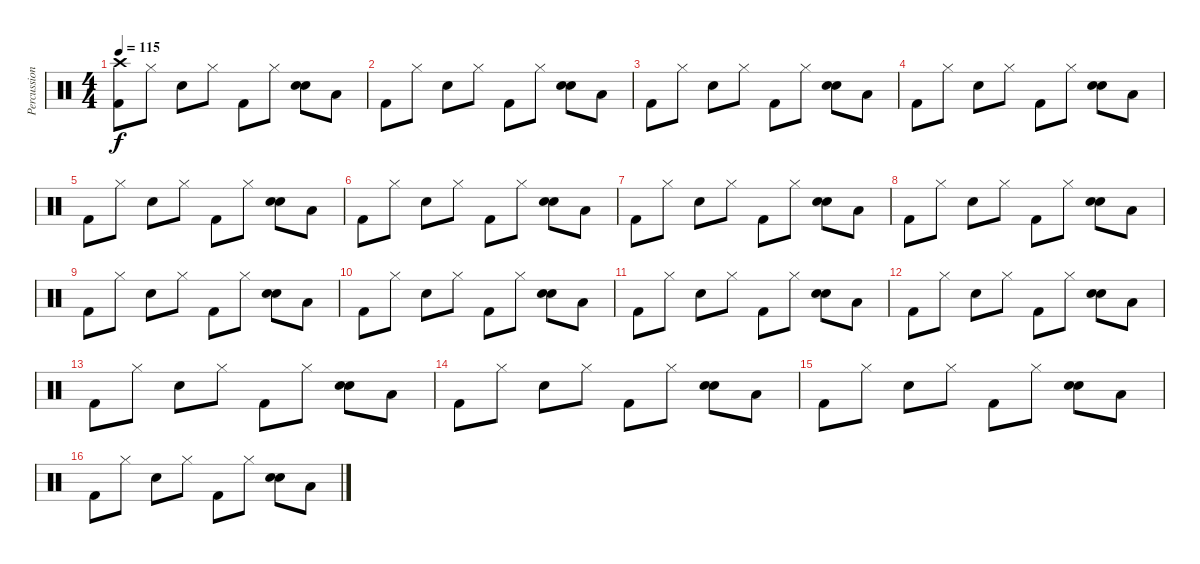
\track ("Percussions" "Percussion") {instrument percussion}
\staff {score}
\articulation defaults
\ts (4 4)
\tempo 115
\clef neutral
\ks c
("Kick (hit) 2" "Crash high (hit)").8{dy f} "Hi-Hat (closed)".8 "Electric Snare (hit)".8 "Hi-Hat (closed)".8 "Kick (hit) 2".8 "Hi-Hat (closed)".8 ("Hand Clap (hit)" "Electric Snare (hit)").8 "Low Tom (hit)".8 |
"Kick (hit) 2".8 "Hi-Hat (closed)".8 "Electric Snare (hit)".8 "Hi-Hat (closed)".8 "Kick (hit) 2".8 "Hi-Hat (closed)".8 ("Hand Clap (hit)" "Electric Snare (hit)").8 "Low Tom (hit)".8 |
"Kick (hit) 2".8 "Hi-Hat (closed)".8 "Electric Snare (hit)".8 "Hi-Hat (closed)".8 "Kick (hit) 2".8 "Hi-Hat (closed)".8 ("Hand Clap (hit)" "Electric Snare (hit)").8 "Low Tom (hit)".8 |
"Kick (hit) 2".8 "Hi-Hat (closed)".8 "Electric Snare (hit)".8 "Hi-Hat (closed)".8 "Kick (hit) 2".8 "Hi-Hat (closed)".8 ("Hand Clap (hit)" "Electric Snare (hit)").8 "Low Tom (hit)".8 |
"Kick (hit) 2".8 "Hi-Hat (closed)".8 "Electric Snare (hit)".8 "Hi-Hat (closed)".8 "Kick (hit) 2".8 "Hi-Hat (closed)".8 ("Hand Clap (hit)" "Electric Snare (hit)").8 "Low Tom (hit)".8 |
"Kick (hit) 2".8 "Hi-Hat (closed)".8 "Electric Snare (hit)".8 "Hi-Hat (closed)".8 "Kick (hit) 2".8 "Hi-Hat (closed)".8 ("Hand Clap (hit)" "Electric Snare (hit)").8 "Low Tom (hit)".8 |
"Kick (hit) 2".8 "Hi-Hat (closed)".8 "Electric Snare (hit)".8 "Hi-Hat (closed)".8 "Kick (hit) 2".8 "Hi-Hat (closed)".8 ("Hand Clap (hit)" "Electric Snare (hit)").8 "Low Tom (hit)".8 |
"Kick (hit) 2".8 "Hi-Hat (closed)".8 "Electric Snare (hit)".8 "Hi-Hat (closed)".8 "Kick (hit) 2".8 "Hi-Hat (closed)".8 ("Hand Clap (hit)" "Electric Snare (hit)").8 "Low Tom (hit)".8 |
"Kick (hit) 2".8 "Hi-Hat (closed)".8 "Electric Snare (hit)".8 "Hi-Hat (closed)".8 "Kick (hit) 2".8 "Hi-Hat (closed)".8 ("Hand Clap (hit)" "Electric Snare (hit)").8 "Low Tom (hit)".8 |
"Kick (hit) 2".8 "Hi-Hat (closed)".8 "Electric Snare (hit)".8 "Hi-Hat (closed)".8 "Kick (hit) 2".8 "Hi-Hat (closed)".8 ("Hand Clap (hit)" "Electric Snare (hit)").8 "Low Tom (hit)".8 |
"Kick (hit) 2".8 "Hi-Hat (closed)".8 "Electric Snare (hit)".8 "Hi-Hat (closed)".8 "Kick (hit) 2".8 "Hi-Hat (closed)".8 ("Hand Clap (hit)" "Electric Snare (hit)").8 "Low Tom (hit)".8 |
"Kick (hit) 2".8 "Hi-Hat (closed)".8 "Electric Snare (hit)".8 "Hi-Hat (closed)".8 "Kick (hit) 2".8 "Hi-Hat (closed)".8 ("Hand Clap (hit)" "Electric Snare (hit)").8 "Low Tom (hit)".8 |
"Kick (hit) 2".8 "Hi-Hat (closed)".8 "Electric Snare (hit)".8 "Hi-Hat (closed)".8 "Kick (hit) 2".8 "Hi-Hat (closed)".8 ("Hand Clap (hit)" "Electric Snare (hit)").8 "Low Tom (hit)".8 |
"Kick (hit) 2".8 "Hi-Hat (closed)".8 "Electric Snare (hit)".8 "Hi-Hat (closed)".8 "Kick (hit) 2".8 "Hi-Hat (closed)".8 ("Hand Clap (hit)" "Electric Snare (hit)").8 "Low Tom (hit)".8 |
"Kick (hit) 2".8 "Hi-Hat (closed)".8 "Electric Snare (hit)".8 "Hi-Hat (closed)".8 "Kick (hit) 2".8 "Hi-Hat (closed)".8 ("Hand Clap (hit)" "Electric Snare (hit)").8 "Low Tom (hit)".8 |
"Kick (hit) 2".8 "Hi-Hat (closed)".8 "Electric Snare (hit)".8 "Hi-Hat (closed)".8 "Kick (hit) 2".8 "Hi-Hat (closed)".8 ("Hand Clap (hit)" "Electric Snare (hit)").8 "Low Tom (hit)".8
